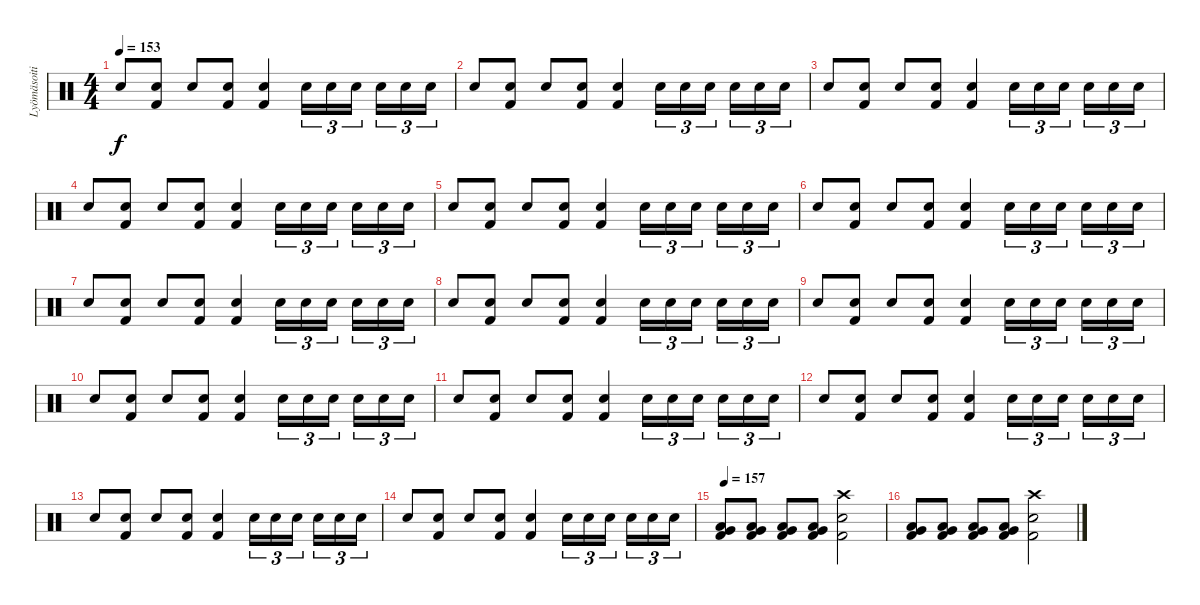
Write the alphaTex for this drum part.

\track ("Lyömäsoitin" "Lyömäsoiti") {instrument percussion}
\staff {score}
\articulation defaults
\ts (4 4)
\tempo 153
\clef neutral
\ks c "Electric Snare (hit)".8{dy f}
("Electric Snare (hit)" "Kick (hit) 2").8 "Electric Snare (hit)".8 ("Electric Snare (hit)" "Kick (hit) 2").8 ("Electric Snare (hit)" "Kick (hit) 2").4 "Electric Snare (hit)".16{tu (3 2)} "Electric Snare (hit)".16{tu (3 2)} "Electric Snare (hit)".16{tu (3 2)} "Electric Snare (hit)".16{tu (3 2)} "Electric Snare (hit)".16{tu (3 2)} "Electric Snare (hit)".16{tu (3 2)} |
"Electric Snare (hit)".8 ("Electric Snare (hit)" "Kick (hit) 2").8 "Electric Snare (hit)".8 ("Electric Snare (hit)" "Kick (hit) 2").8 ("Electric Snare (hit)" "Kick (hit) 2").4 "Electric Snare (hit)".16{tu (3 2)} "Electric Snare (hit)".16{tu (3 2)} "Electric Snare (hit)".16{tu (3 2)} "Electric Snare (hit)".16{tu (3 2)} "Electric Snare (hit)".16{tu (3 2)} "Electric Snare (hit)".16{tu (3 2)} |
"Electric Snare (hit)".8 ("Electric Snare (hit)" "Kick (hit) 2").8 "Electric Snare (hit)".8 ("Electric Snare (hit)" "Kick (hit) 2").8 ("Electric Snare (hit)" "Kick (hit) 2").4 "Electric Snare (hit)".16{tu (3 2)} "Electric Snare (hit)".16{tu (3 2)} "Electric Snare (hit)".16{tu (3 2)} "Electric Snare (hit)".16{tu (3 2)} "Electric Snare (hit)".16{tu (3 2)} "Electric Snare (hit)".16{tu (3 2)} |
"Electric Snare (hit)".8 ("Electric Snare (hit)" "Kick (hit) 2").8 "Electric Snare (hit)".8 ("Electric Snare (hit)" "Kick (hit) 2").8 ("Electric Snare (hit)" "Kick (hit) 2").4 "Electric Snare (hit)".16{tu (3 2)} "Electric Snare (hit)".16{tu (3 2)} "Electric Snare (hit)".16{tu (3 2)} "Electric Snare (hit)".16{tu (3 2)} "Electric Snare (hit)".16{tu (3 2)} "Electric Snare (hit)".16{tu (3 2)} |
"Electric Snare (hit)".8 ("Electric Snare (hit)" "Kick (hit) 2").8 "Electric Snare (hit)".8 ("Electric Snare (hit)" "Kick (hit) 2").8 ("Electric Snare (hit)" "Kick (hit) 2").4 "Electric Snare (hit)".16{tu (3 2)} "Electric Snare (hit)".16{tu (3 2)} "Electric Snare (hit)".16{tu (3 2)} "Electric Snare (hit)".16{tu (3 2)} "Electric Snare (hit)".16{tu (3 2)} "Electric Snare (hit)".16{tu (3 2)} |
"Electric Snare (hit)".8 ("Electric Snare (hit)" "Kick (hit) 2").8 "Electric Snare (hit)".8 ("Electric Snare (hit)" "Kick (hit) 2").8 ("Electric Snare (hit)" "Kick (hit) 2").4 "Electric Snare (hit)".16{tu (3 2)} "Electric Snare (hit)".16{tu (3 2)} "Electric Snare (hit)".16{tu (3 2)} "Electric Snare (hit)".16{tu (3 2)} "Electric Snare (hit)".16{tu (3 2)} "Electric Snare (hit)".16{tu (3 2)} |
"Electric Snare (hit)".8 ("Electric Snare (hit)" "Kick (hit) 2").8 "Electric Snare (hit)".8 ("Electric Snare (hit)" "Kick (hit) 2").8 ("Electric Snare (hit)" "Kick (hit) 2").4 "Electric Snare (hit)".16{tu (3 2)} "Electric Snare (hit)".16{tu (3 2)} "Electric Snare (hit)".16{tu (3 2)} "Electric Snare (hit)".16{tu (3 2)} "Electric Snare (hit)".16{tu (3 2)} "Electric Snare (hit)".16{tu (3 2)} |
"Electric Snare (hit)".8 ("Electric Snare (hit)" "Kick (hit) 2").8 "Electric Snare (hit)".8 ("Electric Snare (hit)" "Kick (hit) 2").8 ("Electric Snare (hit)" "Kick (hit) 2").4 "Electric Snare (hit)".16{tu (3 2)} "Electric Snare (hit)".16{tu (3 2)} "Electric Snare (hit)".16{tu (3 2)} "Electric Snare (hit)".16{tu (3 2)} "Electric Snare (hit)".16{tu (3 2)} "Electric Snare (hit)".16{tu (3 2)} |
"Electric Snare (hit)".8 ("Electric Snare (hit)" "Kick (hit) 2").8 "Electric Snare (hit)".8 ("Electric Snare (hit)" "Kick (hit) 2").8 ("Electric Snare (hit)" "Kick (hit) 2").4 "Electric Snare (hit)".16{tu (3 2)} "Electric Snare (hit)".16{tu (3 2)} "Electric Snare (hit)".16{tu (3 2)} "Electric Snare (hit)".16{tu (3 2)} "Electric Snare (hit)".16{tu (3 2)} "Electric Snare (hit)".16{tu (3 2)} |
"Electric Snare (hit)".8 ("Electric Snare (hit)" "Kick (hit) 2").8 "Electric Snare (hit)".8 ("Electric Snare (hit)" "Kick (hit) 2").8 ("Electric Snare (hit)" "Kick (hit) 2").4 "Electric Snare (hit)".16{tu (3 2)} "Electric Snare (hit)".16{tu (3 2)} "Electric Snare (hit)".16{tu (3 2)} "Electric Snare (hit)".16{tu (3 2)} "Electric Snare (hit)".16{tu (3 2)} "Electric Snare (hit)".16{tu (3 2)} |
"Electric Snare (hit)".8 ("Electric Snare (hit)" "Kick (hit) 2").8 "Electric Snare (hit)".8 ("Electric Snare (hit)" "Kick (hit) 2").8 ("Electric Snare (hit)" "Kick (hit) 2").4 "Electric Snare (hit)".16{tu (3 2)} "Electric Snare (hit)".16{tu (3 2)} "Electric Snare (hit)".16{tu (3 2)} "Electric Snare (hit)".16{tu (3 2)} "Electric Snare (hit)".16{tu (3 2)} "Electric Snare (hit)".16{tu (3 2)} |
"Electric Snare (hit)".8 ("Electric Snare (hit)" "Kick (hit) 2").8 "Electric Snare (hit)".8 ("Electric Snare (hit)" "Kick (hit) 2").8 ("Electric Snare (hit)" "Kick (hit) 2").4 "Electric Snare (hit)".16{tu (3 2)} "Electric Snare (hit)".16{tu (3 2)} "Electric Snare (hit)".16{tu (3 2)} "Electric Snare (hit)".16{tu (3 2)} "Electric Snare (hit)".16{tu (3 2)} "Electric Snare (hit)".16{tu (3 2)} |
"Electric Snare (hit)".8 ("Electric Snare (hit)" "Kick (hit) 2").8 "Electric Snare (hit)".8 ("Electric Snare (hit)" "Kick (hit) 2").8 ("Electric Snare (hit)" "Kick (hit) 2").4 "Electric Snare (hit)".16{tu (3 2)} "Electric Snare (hit)".16{tu (3 2)} "Electric Snare (hit)".16{tu (3 2)} "Electric Snare (hit)".16{tu (3 2)} "Electric Snare (hit)".16{tu (3 2)} "Electric Snare (hit)".16{tu (3 2)} |
"Electric Snare (hit)".8 ("Electric Snare (hit)" "Kick (hit) 2").8 "Electric Snare (hit)".8 ("Electric Snare (hit)" "Kick (hit) 2").8 ("Electric Snare (hit)" "Kick (hit) 2").4 "Electric Snare (hit)".16{tu (3 2)} "Electric Snare (hit)".16{tu (3 2)} "Electric Snare (hit)".16{tu (3 2)} "Electric Snare (hit)".16{tu (3 2)} "Electric Snare (hit)".16{tu (3 2)} "Electric Snare (hit)".16{tu (3 2)} |
\tempo 157
("Low Floor Tom (hit)" "Very Low Tom (hit)" "Kick (hit) 2").8 ("Low Floor Tom (hit)" "Very Low Tom (hit)" "Kick (hit) 2").8 ("Low Floor Tom (hit)" "Very Low Tom (hit)" "Kick (hit) 2").8 ("Low Floor Tom (hit)" "Very Low Tom (hit)" "Kick (hit) 2").8 ("Crash high (hit)" "Electric Snare (hit)" "Kick (hit) 2").2 |
("Very Low Tom (hit)" "Low Tom (hit)" "Kick (hit) 2").8 ("Very Low Tom (hit)" "Low Tom (hit)" "Kick (hit) 2").8 ("Very Low Tom (hit)" "Low Tom (hit)" "Kick (hit) 2").8 ("Very Low Tom (hit)" "Low Tom (hit)" "Kick (hit) 2").8 ("Crash high (hit)" "Electric Snare (hit)" "Kick (hit) 2").2
